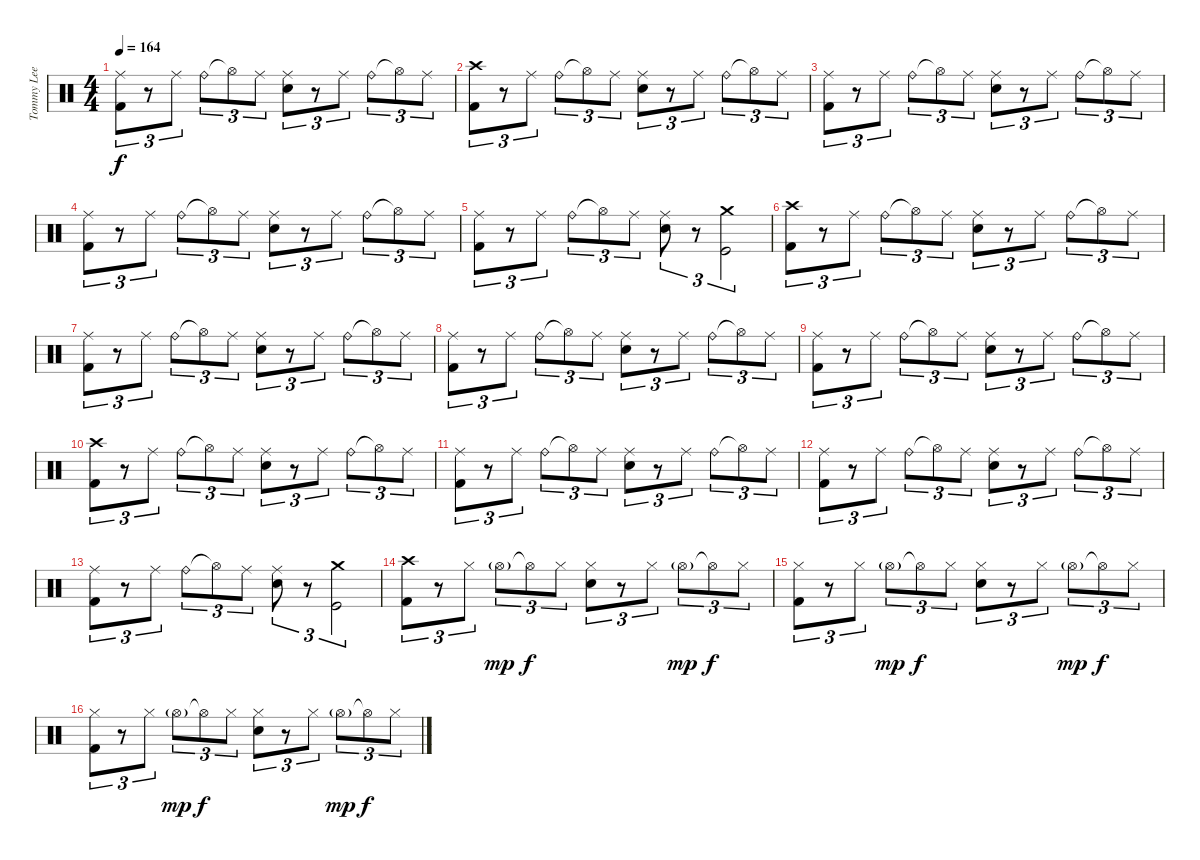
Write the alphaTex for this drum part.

\track ("Tommy Lee" "Tommy Lee") {instrument percussion}
\staff {score}
\articulation defaults
\ts (4 4)
\tempo 164
\clef neutral
\ks c
("Ride (middle)" "Kick (hit) 2").8{tu (3 2) dy f} r.8{tu (3 2)} "Ride (middle)".8{tu (3 2)} "Ride (bell)".8{tu (3 2)} "Hi-Hat (open)"{t}.8{tu (3 2)} "Ride (middle)".8{tu (3 2)} ("Ride (middle)" "Snare (hit) 2").8{tu (3 2)} r.8{tu (3 2)} "Ride (middle)".8{tu (3 2)} "Ride (bell)".8{tu (3 2)} "Hi-Hat (open)"{t}.8{tu (3 2)} "Ride (middle)".8{tu (3 2)} |
("Crash high (hit)" "Kick (hit) 2").8{tu (3 2)} r.8{tu (3 2)} "Ride (middle)".8{tu (3 2)} "Ride (bell)".8{tu (3 2)} "Hi-Hat (open)"{t}.8{tu (3 2)} "Ride (middle)".8{tu (3 2)} ("Ride (middle)" "Snare (hit) 2").8{tu (3 2)} r.8{tu (3 2)} "Ride (middle)".8{tu (3 2)} "Ride (bell)".8{tu (3 2)} "Hi-Hat (open)"{t}.8{tu (3 2)} "Ride (middle)".8{tu (3 2)} |
("Ride (middle)" "Kick (hit) 2").8{tu (3 2)} r.8{tu (3 2)} "Ride (middle)".8{tu (3 2)} "Ride (bell)".8{tu (3 2)} "Hi-Hat (open)"{t}.8{tu (3 2)} "Ride (middle)".8{tu (3 2)} ("Ride (middle)" "Snare (hit) 2").8{tu (3 2)} r.8{tu (3 2)} "Ride (middle)".8{tu (3 2)} "Ride (bell)".8{tu (3 2)} "Hi-Hat (open)"{t}.8{tu (3 2)} "Ride (middle)".8{tu (3 2)} |
("Ride (middle)" "Kick (hit) 2").8{tu (3 2)} r.8{tu (3 2)} "Ride (middle)".8{tu (3 2)} "Ride (bell)".8{tu (3 2)} "Hi-Hat (open)"{t}.8{tu (3 2)} "Ride (middle)".8{tu (3 2)} ("Ride (middle)" "Snare (hit) 2").8{tu (3 2)} r.8{tu (3 2)} "Ride (middle)".8{tu (3 2)} "Ride (bell)".8{tu (3 2)} "Hi-Hat (open)"{t}.8{tu (3 2)} "Ride (middle)".8{tu (3 2)} |
("Ride (middle)" "Kick (hit) 2").8{tu (3 2)} r.8{tu (3 2)} "Ride (middle)".8{tu (3 2)} "Ride (bell)".8{tu (3 2)} "Hi-Hat (open)"{t}.8{tu (3 2)} "Ride (middle)".8{tu (3 2)} ("Ride (middle)" "Snare (hit) 2").8{tu (3 2)} r.8{tu (3 2)} ("Crash medium (hit)" "Kick (hit)").2{tu (3 2)} |
("Crash high (hit)" "Kick (hit) 2").8{tu (3 2)} r.8{tu (3 2)} "Ride (middle)".8{tu (3 2)} "Ride (bell)".8{tu (3 2)} "Hi-Hat (open)"{t}.8{tu (3 2)} "Ride (middle)".8{tu (3 2)} ("Ride (middle)" "Snare (hit) 2").8{tu (3 2)} r.8{tu (3 2)} "Ride (middle)".8{tu (3 2)} "Ride (bell)".8{tu (3 2)} "Hi-Hat (open)"{t}.8{tu (3 2)} "Ride (middle)".8{tu (3 2)} |
("Ride (middle)" "Kick (hit) 2").8{tu (3 2)} r.8{tu (3 2)} "Ride (middle)".8{tu (3 2)} "Ride (bell)".8{tu (3 2)} "Hi-Hat (open)"{t}.8{tu (3 2)} "Ride (middle)".8{tu (3 2)} ("Ride (middle)" "Snare (hit) 2").8{tu (3 2)} r.8{tu (3 2)} "Ride (middle)".8{tu (3 2)} "Ride (bell)".8{tu (3 2)} "Hi-Hat (open)"{t}.8{tu (3 2)} "Ride (middle)".8{tu (3 2)} |
("Ride (middle)" "Kick (hit) 2").8{tu (3 2)} r.8{tu (3 2)} "Ride (middle)".8{tu (3 2)} "Ride (bell)".8{tu (3 2)} "Hi-Hat (open)"{t}.8{tu (3 2)} "Ride (middle)".8{tu (3 2)} ("Ride (middle)" "Snare (hit) 2").8{tu (3 2)} r.8{tu (3 2)} "Ride (middle)".8{tu (3 2)} "Ride (bell)".8{tu (3 2)} "Hi-Hat (open)"{t}.8{tu (3 2)} "Ride (middle)".8{tu (3 2)} |
("Ride (middle)" "Kick (hit) 2").8{tu (3 2)} r.8{tu (3 2)} "Ride (middle)".8{tu (3 2)} "Ride (bell)".8{tu (3 2)} "Hi-Hat (open)"{t}.8{tu (3 2)} "Ride (middle)".8{tu (3 2)} ("Ride (middle)" "Snare (hit) 2").8{tu (3 2)} r.8{tu (3 2)} "Ride (middle)".8{tu (3 2)} "Ride (bell)".8{tu (3 2)} "Hi-Hat (open)"{t}.8{tu (3 2)} "Ride (middle)".8{tu (3 2)} |
("Crash high (hit)" "Kick (hit) 2").8{tu (3 2)} r.8{tu (3 2)} "Ride (middle)".8{tu (3 2)} "Ride (bell)".8{tu (3 2)} "Hi-Hat (open)"{t}.8{tu (3 2)} "Ride (middle)".8{tu (3 2)} ("Ride (middle)" "Snare (hit) 2").8{tu (3 2)} r.8{tu (3 2)} "Ride (middle)".8{tu (3 2)} "Ride (bell)".8{tu (3 2)} "Hi-Hat (open)"{t}.8{tu (3 2)} "Ride (middle)".8{tu (3 2)} |
("Ride (middle)" "Kick (hit) 2").8{tu (3 2)} r.8{tu (3 2)} "Ride (middle)".8{tu (3 2)} "Ride (bell)".8{tu (3 2)} "Hi-Hat (open)"{t}.8{tu (3 2)} "Ride (middle)".8{tu (3 2)} ("Ride (middle)" "Snare (hit) 2").8{tu (3 2)} r.8{tu (3 2)} "Ride (middle)".8{tu (3 2)} "Ride (bell)".8{tu (3 2)} "Hi-Hat (open)"{t}.8{tu (3 2)} "Ride (middle)".8{tu (3 2)} |
("Ride (middle)" "Kick (hit) 2").8{tu (3 2)} r.8{tu (3 2)} "Ride (middle)".8{tu (3 2)} "Ride (bell)".8{tu (3 2)} "Hi-Hat (open)"{t}.8{tu (3 2)} "Ride (middle)".8{tu (3 2)} ("Ride (middle)" "Snare (hit) 2").8{tu (3 2)} r.8{tu (3 2)} "Ride (middle)".8{tu (3 2)} "Ride (bell)".8{tu (3 2)} "Hi-Hat (open)"{t}.8{tu (3 2)} "Ride (middle)".8{tu (3 2)} |
("Ride (middle)" "Kick (hit) 2").8{tu (3 2)} r.8{tu (3 2)} "Ride (middle)".8{tu (3 2)} "Ride (bell)".8{tu (3 2)} "Hi-Hat (open)"{t}.8{tu (3 2)} "Ride (middle)".8{tu (3 2)} ("Ride (middle)" "Snare (hit) 2").8{tu (3 2)} r.8{tu (3 2)} ("Crash medium (hit)" "Kick (hit)").2{tu (3 2)} |
("Crash high (hit)" "Kick (hit) 2").8{tu (3 2)} r.8{tu (3 2)} "Hi-Hat (closed)".8{tu (3 2)} "Hi-Hat (open)"{g}.8{tu (3 2) dy mp} "Hi-Hat (open)"{t}.8{tu (3 2) dy f} "Hi-Hat (closed)".8{tu (3 2)} ("Hi-Hat (closed)" "Snare (hit) 2").8{tu (3 2)} r.8{tu (3 2)} "Hi-Hat (closed)".8{tu (3 2)} "Hi-Hat (open)"{g}.8{tu (3 2) dy mp} "Hi-Hat (open)"{t}.8{tu (3 2) dy f} "Hi-Hat (closed)".8{tu (3 2)} |
("Hi-Hat (closed)" "Kick (hit) 2").8{tu (3 2)} r.8{tu (3 2)} "Hi-Hat (closed)".8{tu (3 2)} "Hi-Hat (open)"{g}.8{tu (3 2) dy mp} "Hi-Hat (open)"{t}.8{tu (3 2) dy f} "Hi-Hat (closed)".8{tu (3 2)} ("Hi-Hat (closed)" "Snare (hit) 2").8{tu (3 2)} r.8{tu (3 2)} "Hi-Hat (closed)".8{tu (3 2)} "Hi-Hat (open)"{g}.8{tu (3 2) dy mp} "Hi-Hat (open)"{t}.8{tu (3 2) dy f} "Hi-Hat (closed)".8{tu (3 2)} |
("Hi-Hat (closed)" "Kick (hit) 2").8{tu (3 2)} r.8{tu (3 2)} "Hi-Hat (closed)".8{tu (3 2)} "Hi-Hat (open)"{g}.8{tu (3 2) dy mp} "Hi-Hat (open)"{t}.8{tu (3 2) dy f} "Hi-Hat (closed)".8{tu (3 2)} ("Hi-Hat (closed)" "Snare (hit) 2").8{tu (3 2)} r.8{tu (3 2)} "Hi-Hat (closed)".8{tu (3 2)} "Hi-Hat (open)"{g}.8{tu (3 2) dy mp} "Hi-Hat (open)"{t}.8{tu (3 2) dy f} "Hi-Hat (closed)".8{tu (3 2)}
